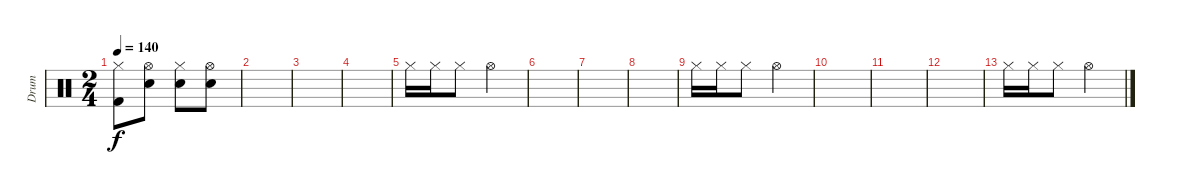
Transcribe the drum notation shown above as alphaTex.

\track ("Drum" "Drum") {instrument percussion}
\staff {score}
\articulation defaults
\ts (2 4)
\tempo 140
\clef neutral
\ks c
("Kick (hit) 2" "Hi-Hat (closed)").8{dy f} ("Electric Snare (hit)" "Hi-Hat (open)").8 ("Hi-Hat (closed)" "Electric Snare (hit)").8 ("Hi-Hat (open)" "Electric Snare (hit)").8 |
|
|
|
"Hi-Hat (closed)".16 "Hi-Hat (closed)".16 "Hi-Hat (closed)".8 "Hi-Hat (open)".4 |
|
|
|
"Hi-Hat (closed)".16 "Hi-Hat (closed)".16 "Hi-Hat (closed)".8 "Hi-Hat (open)".4 |
|
|
|
"Hi-Hat (closed)".16 "Hi-Hat (closed)".16 "Hi-Hat (closed)".8 "Hi-Hat (open)".4
